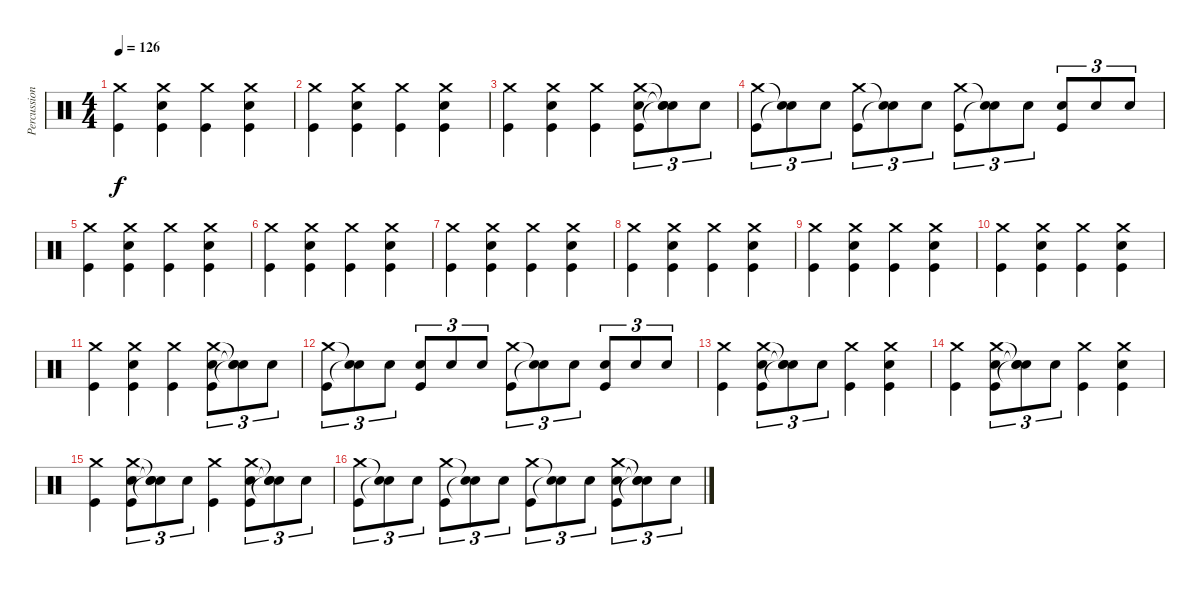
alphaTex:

\track ("Percussion" "Percussion") {instrument percussion}
\staff {score}
\articulation defaults
\ts (4 4)
\tempo 126
\clef neutral
\ks c
("Crash medium (hit)" "Kick (hit)").4{dy f} ("Crash medium (hit)" "Snare (hit) 2" "Kick (hit)").4 ("Crash medium (hit)" "Kick (hit)").4 ("Crash medium (hit)" "Snare (hit) 2" "Kick (hit)").4 |
("Crash medium (hit)" "Kick (hit)").4 ("Crash medium (hit)" "Snare (hit) 2" "Kick (hit)").4 ("Crash medium (hit)" "Kick (hit)").4 ("Crash medium (hit)" "Snare (hit) 2" "Kick (hit)").4 |
("Crash medium (hit)" "Kick (hit)").4 ("Crash medium (hit)" "Snare (hit) 2" "Kick (hit)").4 ("Crash medium (hit)" "Kick (hit)").4 ("Crash medium (hit)" "Snare (hit) 2" "Kick (hit)").8{tu (3 2)} ("Snare (hit)"{t} "Snare (hit)"{t} "Snare (hit)"{t}).8{tu (3 2)} "Snare (hit) 2".8{tu (3 2)} |
("Crash medium (hit)" "Kick (hit)").8{tu (3 2)} ("Snare (hit)"{t} "Snare (hit)"{t}).8{tu (3 2)} "Snare (hit) 2".8{tu (3 2)} ("Crash medium (hit)" "Kick (hit)").8{tu (3 2)} ("Snare (hit)"{t} "Snare (hit)"{t}).8{tu (3 2)} "Snare (hit) 2".8{tu (3 2)} ("Crash medium (hit)" "Kick (hit)").8{tu (3 2)} ("Snare (hit)"{t} "Snare (hit)"{t}).8{tu (3 2)} "Snare (hit) 2".8{tu (3 2)} ("Snare (hit) 2" "Kick (hit)").8{tu (3 2)} "Snare (hit) 2".8{tu (3 2)} "Snare (hit) 2".8{tu (3 2)} |
("Crash medium (hit)" "Kick (hit)").4 ("Crash medium (hit)" "Snare (hit) 2" "Kick (hit)").4 ("Crash medium (hit)" "Kick (hit)").4 ("Crash medium (hit)" "Snare (hit) 2" "Kick (hit)").4 |
("Crash medium (hit)" "Kick (hit)").4 ("Crash medium (hit)" "Snare (hit) 2" "Kick (hit)").4 ("Crash medium (hit)" "Kick (hit)").4 ("Crash medium (hit)" "Snare (hit) 2" "Kick (hit)").4 |
("Crash medium (hit)" "Kick (hit)").4 ("Crash medium (hit)" "Snare (hit) 2" "Kick (hit)").4 ("Crash medium (hit)" "Kick (hit)").4 ("Crash medium (hit)" "Snare (hit) 2" "Kick (hit)").4 |
("Crash medium (hit)" "Kick (hit)").4 ("Crash medium (hit)" "Snare (hit) 2" "Kick (hit)").4 ("Crash medium (hit)" "Kick (hit)").4 ("Crash medium (hit)" "Snare (hit) 2" "Kick (hit)").4 |
("Crash medium (hit)" "Kick (hit)").4 ("Crash medium (hit)" "Snare (hit) 2" "Kick (hit)").4 ("Crash medium (hit)" "Kick (hit)").4 ("Crash medium (hit)" "Snare (hit) 2" "Kick (hit)").4 |
("Crash medium (hit)" "Kick (hit)").4 ("Crash medium (hit)" "Snare (hit) 2" "Kick (hit)").4 ("Crash medium (hit)" "Kick (hit)").4 ("Crash medium (hit)" "Snare (hit) 2" "Kick (hit)").4 |
("Crash medium (hit)" "Kick (hit)").4 ("Crash medium (hit)" "Snare (hit) 2" "Kick (hit)").4 ("Crash medium (hit)" "Kick (hit)").4 ("Crash medium (hit)" "Snare (hit) 2" "Kick (hit)").8{tu (3 2)} ("Snare (hit)"{t} "Snare (hit)"{t} "Snare (hit)"{t}).8{tu (3 2)} "Snare (hit) 2".8{tu (3 2)} |
("Crash medium (hit)" "Kick (hit)").8{tu (3 2)} ("Snare (hit)"{t} "Snare (hit)"{t}).8{tu (3 2)} "Snare (hit) 2".8{tu (3 2)} ("Snare (hit) 2" "Kick (hit)").8{tu (3 2)} "Snare (hit) 2".8{tu (3 2)} "Snare (hit) 2".8{tu (3 2)} ("Crash medium (hit)" "Kick (hit)").8{tu (3 2)} ("Snare (hit)"{t} "Snare (hit)"{t}).8{tu (3 2)} "Snare (hit) 2".8{tu (3 2)} ("Snare (hit) 2" "Kick (hit)").8{tu (3 2)} "Snare (hit) 2".8{tu (3 2)} "Snare (hit) 2".8{tu (3 2)} |
("Crash medium (hit)" "Kick (hit)").4 ("Crash medium (hit)" "Snare (hit) 2" "Kick (hit)").8{tu (3 2)} ("Snare (hit)"{t} "Snare (hit)"{t} "Snare (hit)"{t}).8{tu (3 2)} "Snare (hit) 2".8{tu (3 2)} ("Crash medium (hit)" "Kick (hit)").4 ("Crash medium (hit)" "Snare (hit) 2" "Kick (hit)").4 |
("Crash medium (hit)" "Kick (hit)").4 ("Crash medium (hit)" "Snare (hit) 2" "Kick (hit)").8{tu (3 2)} ("Snare (hit)"{t} "Snare (hit)"{t} "Snare (hit)"{t}).8{tu (3 2)} "Snare (hit) 2".8{tu (3 2)} ("Crash medium (hit)" "Kick (hit)").4 ("Crash medium (hit)" "Snare (hit) 2" "Kick (hit)").4 |
("Crash medium (hit)" "Kick (hit)").4 ("Crash medium (hit)" "Snare (hit) 2" "Kick (hit)").8{tu (3 2)} ("Snare (hit)"{t} "Snare (hit)"{t} "Snare (hit)"{t}).8{tu (3 2)} "Snare (hit) 2".8{tu (3 2)} ("Crash medium (hit)" "Kick (hit)").4 ("Crash medium (hit)" "Snare (hit) 2" "Kick (hit)").8{tu (3 2)} ("Snare (hit)"{t} "Snare (hit)"{t} "Snare (hit)"{t}).8{tu (3 2)} "Snare (hit) 2".8{tu (3 2)} |
("Crash medium (hit)" "Kick (hit)").8{tu (3 2)} ("Snare (hit)"{t} "Snare (hit)"{t}).8{tu (3 2)} "Snare (hit) 2".8{tu (3 2)} ("Crash medium (hit)" "Kick (hit)").8{tu (3 2)} ("Snare (hit)"{t} "Snare (hit)"{t}).8{tu (3 2)} "Snare (hit) 2".8{tu (3 2)} ("Crash medium (hit)" "Kick (hit)").8{tu (3 2)} ("Snare (hit)"{t} "Snare (hit)"{t}).8{tu (3 2)} "Snare (hit) 2".8{tu (3 2)} ("Crash medium (hit)" "Snare (hit) 2" "Kick (hit)").8{tu (3 2)} ("Snare (hit)"{t} "Snare (hit)"{t} "Snare (hit)"{t}).8{tu (3 2)} "Snare (hit) 2".8{tu (3 2)}
